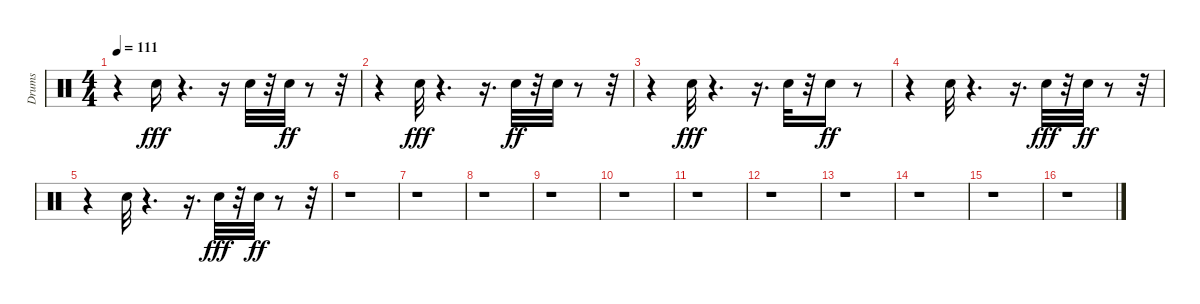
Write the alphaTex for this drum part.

\track ("Drums" "Drums") {instrument percussion}
\staff {score}
\articulation defaults
\ts (4 4)
\tempo 111
\clef neutral
\ks c
r.4{dy ff} "Electric Snare (hit)".16{dy fff} r.4{d} r.16 "Electric Snare (hit)".32 r.32 "Electric Snare (hit)".32{dy ff} r.8 r.32 |
r.4 "Electric Snare (hit)".32{dy fff} r.4{d} r.16{d} "Electric Snare (hit)".32{dy ff} r.32 "Electric Snare (hit)".32 r.8 r.32 |
r.4 "Electric Snare (hit)".32{dy fff} r.4{d} r.16{d} "Electric Snare (hit)".32 r.32 "Electric Snare (hit)".16{dy ff} r.8 |
r.4 "Electric Snare (hit)".32 r.4{d} r.16{d} "Electric Snare (hit)".32{dy fff} r.32 "Electric Snare (hit)".32{dy ff} r.8 r.32 |
r.4 "Electric Snare (hit)".32 r.4{d} r.16{d} "Electric Snare (hit)".32{dy fff} r.32 "Electric Snare (hit)".32{dy ff} r.8 r.32 |
r.1 |
r.1 |
r.1 |
r.1 |
r.1 |
r.1 |
r.1 |
r.1 |
r.1 |
r.1 |
r.1
